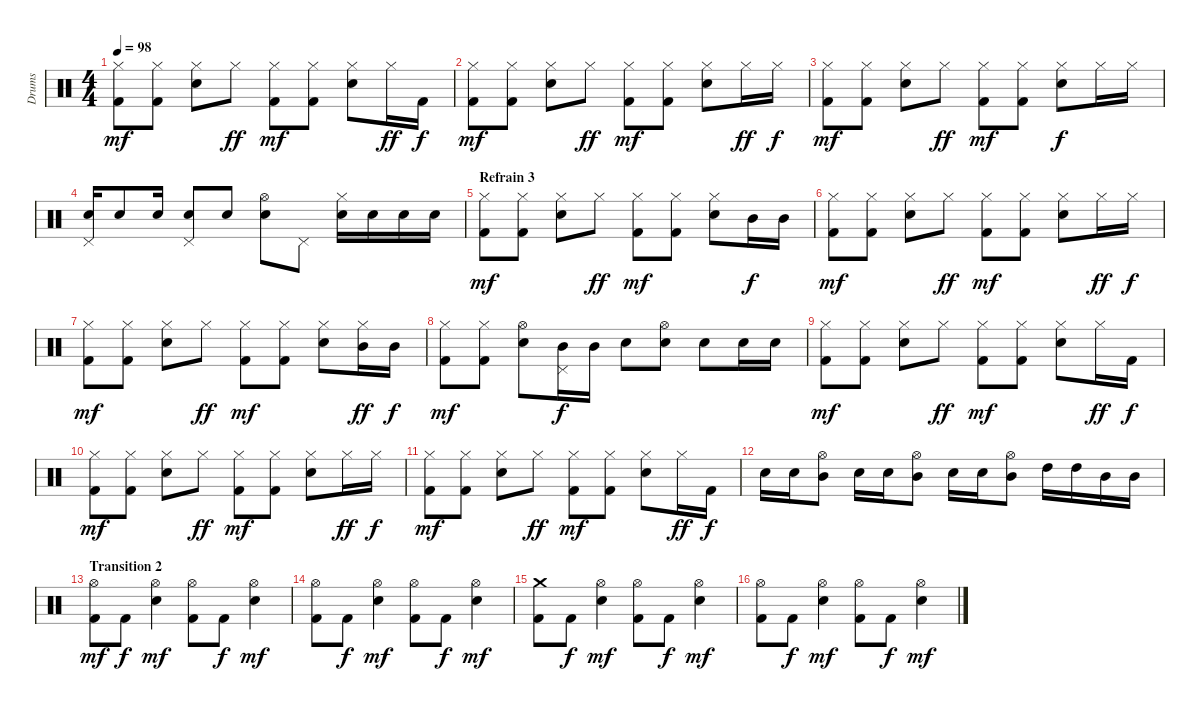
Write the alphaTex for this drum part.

\track ("Drums" "Drums") {instrument percussion}
\staff {score}
\articulation defaults
\ts (4 4)
\tempo 98
\clef neutral
\ks c
("Hi-Hat (closed)" "Kick (hit) 2").8{dy mf} ("Hi-Hat (closed)" "Kick (hit) 2").8 ("Hi-Hat (closed)" "Snare (hit) 2").8 "Hi-Hat (closed)".8{dy ff} ("Hi-Hat (closed)" "Kick (hit) 2").8{dy mf} ("Hi-Hat (closed)" "Kick (hit) 2").8 ("Hi-Hat (closed)" "Snare (hit) 2").8 "Hi-Hat (closed)".16{dy ff} "Kick (hit) 2".16{dy f} |
("Hi-Hat (closed)" "Kick (hit) 2").8{dy mf} ("Hi-Hat (closed)" "Kick (hit) 2").8 ("Hi-Hat (closed)" "Snare (hit) 2").8 "Hi-Hat (closed)".8{dy ff} ("Hi-Hat (closed)" "Kick (hit) 2").8{dy mf} ("Hi-Hat (closed)" "Kick (hit) 2").8 ("Hi-Hat (closed)" "Snare (hit) 2").8 "Hi-Hat (closed)".16{dy ff} "Hi-Hat (closed)".16{dy f} |
("Hi-Hat (closed)" "Kick (hit) 2").8{dy mf} ("Hi-Hat (closed)" "Kick (hit) 2").8 ("Hi-Hat (closed)" "Snare (hit) 2").8 "Hi-Hat (closed)".8{dy ff} ("Hi-Hat (closed)" "Kick (hit) 2").8{dy mf} ("Hi-Hat (closed)" "Kick (hit) 2").8 ("Hi-Hat (closed)" "Snare (hit) 2").8{dy f} "Hi-Hat (closed)".16 "Hi-Hat (closed)".16 |
("Snare (hit) 2" "Pedal Hi-Hat (hit)").16 "Snare (hit) 2".8 "Snare (hit) 2".16 ("Snare (hit) 2" "Pedal Hi-Hat (hit)").8 "Snare (hit) 2".8 ("Hi-Hat (open)" "Snare (hit) 2").8 "Pedal Hi-Hat (hit)".8 ("Hi-Hat (closed)" "Snare (hit) 2").16 "Snare (hit) 2".16 "Snare (hit) 2".16 "Snare (hit) 2".16 |
\section ("" "Refrain 3")
("Hi-Hat (closed)" "Kick (hit) 2").8{dy mf} ("Hi-Hat (closed)" "Kick (hit) 2").8 ("Hi-Hat (closed)" "Snare (hit) 2").8 "Hi-Hat (closed)".8{dy ff} ("Hi-Hat (closed)" "Kick (hit) 2").8{dy mf} ("Hi-Hat (closed)" "Kick (hit) 2").8 ("Hi-Hat (closed)" "Snare (hit) 2").8 "Mid Tom (hit)".16{dy f} "Mid Tom (hit)".16 |
("Hi-Hat (closed)" "Kick (hit) 2").8{dy mf} ("Hi-Hat (closed)" "Kick (hit) 2").8 ("Hi-Hat (closed)" "Snare (hit) 2").8 "Hi-Hat (closed)".8{dy ff} ("Hi-Hat (closed)" "Kick (hit) 2").8{dy mf} ("Hi-Hat (closed)" "Kick (hit) 2").8 ("Hi-Hat (closed)" "Snare (hit) 2").8 "Hi-Hat (closed)".16{dy ff} "Hi-Hat (closed)".16{dy f} |
("Hi-Hat (closed)" "Kick (hit) 2").8{dy mf} ("Hi-Hat (closed)" "Kick (hit) 2").8 ("Hi-Hat (closed)" "Snare (hit) 2").8 "Hi-Hat (closed)".8{dy ff} ("Hi-Hat (closed)" "Kick (hit) 2").8{dy mf} ("Hi-Hat (closed)" "Kick (hit) 2").8 ("Hi-Hat (closed)" "Snare (hit) 2").8 ("Hi-Hat (closed)" "Mid Tom (hit)").16{dy ff} "Mid Tom (hit)".16{dy f} |
("Hi-Hat (closed)" "Kick (hit) 2").8{dy mf} ("Hi-Hat (closed)" "Kick (hit) 2").8 ("Hi-Hat (open)" "Snare (hit) 2").8 ("Mid Tom (hit)" "Pedal Hi-Hat (hit)").16{dy f} "Mid Tom (hit)".16 "Snare (hit) 2".8 ("Hi-Hat (open)" "Snare (hit) 2").8 "Snare (hit) 2".8 "Snare (hit) 2".16 "Snare (hit) 2".16 |
("Hi-Hat (closed)" "Kick (hit) 2").8{dy mf} ("Hi-Hat (closed)" "Kick (hit) 2").8 ("Hi-Hat (closed)" "Snare (hit) 2").8 "Hi-Hat (closed)".8{dy ff} ("Hi-Hat (closed)" "Kick (hit) 2").8{dy mf} ("Hi-Hat (closed)" "Kick (hit) 2").8 ("Hi-Hat (closed)" "Snare (hit) 2").8 "Hi-Hat (closed)".16{dy ff} "Kick (hit) 2".16{dy f} |
("Hi-Hat (closed)" "Kick (hit) 2").8{dy mf} ("Hi-Hat (closed)" "Kick (hit) 2").8 ("Hi-Hat (closed)" "Snare (hit) 2").8 "Hi-Hat (closed)".8{dy ff} ("Hi-Hat (closed)" "Kick (hit) 2").8{dy mf} ("Hi-Hat (closed)" "Kick (hit) 2").8 ("Hi-Hat (closed)" "Snare (hit) 2").8 "Hi-Hat (closed)".16{dy ff} "Hi-Hat (closed)".16{dy f} |
("Hi-Hat (closed)" "Kick (hit) 2").8{dy mf} ("Hi-Hat (closed)" "Kick (hit) 2").8 ("Hi-Hat (closed)" "Snare (hit) 2").8 "Hi-Hat (closed)".8{dy ff} ("Hi-Hat (closed)" "Kick (hit) 2").8{dy mf} ("Hi-Hat (closed)" "Kick (hit) 2").8 ("Hi-Hat (closed)" "Snare (hit) 2").8 "Hi-Hat (closed)".16{dy ff} "Kick (hit) 2".16{dy f} |
"Snare (hit) 2".16 "Snare (hit) 2".16 ("Hi-Hat (open)" "Mid Tom (hit)").8 "Snare (hit) 2".16 "Snare (hit) 2".16 ("Hi-Hat (open)" "Mid Tom (hit)").8 "Snare (hit) 2".16 "Snare (hit) 2".16 ("Hi-Hat (open)" "Mid Tom (hit)").8 "High Tom (hit)".16 "High Tom (hit)".16 "Mid Tom (hit)".16 "Mid Tom (hit)".16 |
\section ("" "Transition 2")
("Hi-Hat (open)" "Kick (hit) 2").8{dy mf} "Kick (hit) 2".8{dy f} ("Hi-Hat (open)" "Snare (hit) 2").4{dy mf} ("Hi-Hat (open)" "Kick (hit) 2").8 "Kick (hit) 2".8{dy f} ("Hi-Hat (open)" "Snare (hit) 2").4{dy mf} |
("Hi-Hat (open)" "Kick (hit) 2").8 "Kick (hit) 2".8{dy f} ("Hi-Hat (open)" "Snare (hit) 2").4{dy mf} ("Hi-Hat (open)" "Kick (hit) 2").8 "Kick (hit) 2".8{dy f} ("Hi-Hat (open)" "Snare (hit) 2").4{dy mf} |
("Crash medium (hit)" "Kick (hit) 2").8 "Kick (hit) 2".8{dy f} ("Hi-Hat (open)" "Snare (hit) 2").4{dy mf} ("Hi-Hat (open)" "Kick (hit) 2").8 "Kick (hit) 2".8{dy f} ("Hi-Hat (open)" "Snare (hit) 2").4{dy mf} |
("Hi-Hat (open)" "Kick (hit) 2").8 "Kick (hit) 2".8{dy f} ("Hi-Hat (open)" "Snare (hit) 2").4{dy mf} ("Hi-Hat (open)" "Kick (hit) 2").8 "Kick (hit) 2".8{dy f} ("Hi-Hat (open)" "Snare (hit) 2").4{dy mf}
